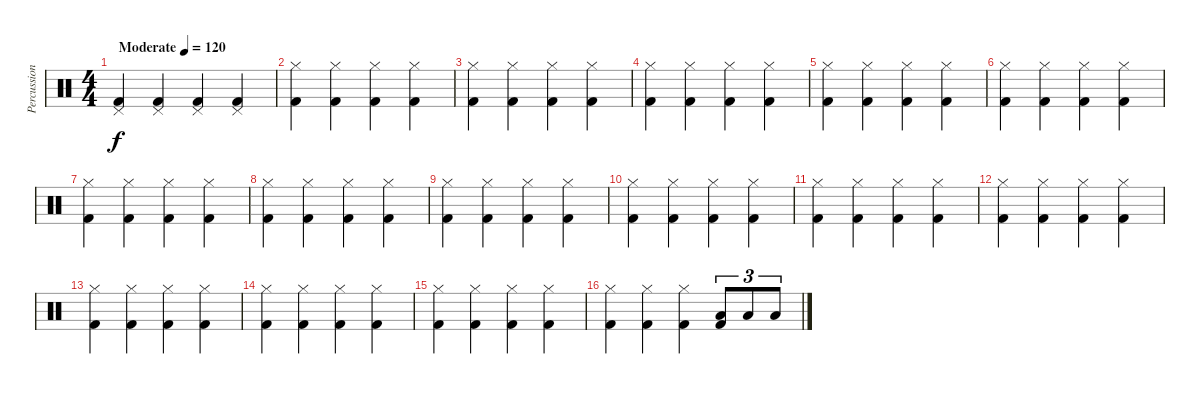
\track ("Percussions" "Percussion") {instrument percussion}
\staff {score}
\articulation defaults
\ts (4 4)
\tempo (120 "Moderate")
\clef neutral
\ks c
("Pedal Hi-Hat (hit)" "Kick (hit) 2").4{dy f} ("Pedal Hi-Hat (hit)" "Kick (hit) 2").4 ("Pedal Hi-Hat (hit)" "Kick (hit) 2").4 ("Pedal Hi-Hat (hit)" "Kick (hit) 2").4 |
("Hi-Hat (closed)" "Kick (hit) 2").4 ("Hi-Hat (closed)" "Kick (hit) 2").4 ("Hi-Hat (closed)" "Kick (hit) 2").4 ("Hi-Hat (closed)" "Kick (hit) 2").4 |
("Hi-Hat (closed)" "Kick (hit) 2").4 ("Hi-Hat (closed)" "Kick (hit) 2").4 ("Hi-Hat (closed)" "Kick (hit) 2").4 ("Hi-Hat (closed)" "Kick (hit) 2").4 |
("Hi-Hat (closed)" "Kick (hit) 2").4 ("Hi-Hat (closed)" "Kick (hit) 2").4 ("Hi-Hat (closed)" "Kick (hit) 2").4 ("Hi-Hat (closed)" "Kick (hit) 2").4 |
("Hi-Hat (closed)" "Kick (hit) 2").4 ("Hi-Hat (closed)" "Kick (hit) 2").4 ("Hi-Hat (closed)" "Kick (hit) 2").4 ("Hi-Hat (closed)" "Kick (hit) 2").4 |
("Hi-Hat (closed)" "Kick (hit) 2").4 ("Hi-Hat (closed)" "Kick (hit) 2").4 ("Hi-Hat (closed)" "Kick (hit) 2").4 ("Hi-Hat (closed)" "Kick (hit) 2").4 |
("Hi-Hat (closed)" "Kick (hit) 2").4 ("Hi-Hat (closed)" "Kick (hit) 2").4 ("Hi-Hat (closed)" "Kick (hit) 2").4 ("Hi-Hat (closed)" "Kick (hit) 2").4 |
("Hi-Hat (closed)" "Kick (hit) 2").4 ("Hi-Hat (closed)" "Kick (hit) 2").4 ("Hi-Hat (closed)" "Kick (hit) 2").4 ("Hi-Hat (closed)" "Kick (hit) 2").4 |
("Hi-Hat (closed)" "Kick (hit) 2").4 ("Hi-Hat (closed)" "Kick (hit) 2").4 ("Hi-Hat (closed)" "Kick (hit) 2").4 ("Hi-Hat (closed)" "Kick (hit) 2").4 |
("Hi-Hat (closed)" "Kick (hit) 2").4 ("Hi-Hat (closed)" "Kick (hit) 2").4 ("Hi-Hat (closed)" "Kick (hit) 2").4 ("Hi-Hat (closed)" "Kick (hit) 2").4 |
("Hi-Hat (closed)" "Kick (hit) 2").4 ("Hi-Hat (closed)" "Kick (hit) 2").4 ("Hi-Hat (closed)" "Kick (hit) 2").4 ("Hi-Hat (closed)" "Kick (hit) 2").4 |
("Hi-Hat (closed)" "Kick (hit) 2").4 ("Hi-Hat (closed)" "Kick (hit) 2").4 ("Hi-Hat (closed)" "Kick (hit) 2").4 ("Hi-Hat (closed)" "Kick (hit) 2").4 |
("Hi-Hat (closed)" "Kick (hit) 2").4 ("Hi-Hat (closed)" "Kick (hit) 2").4 ("Hi-Hat (closed)" "Kick (hit) 2").4 ("Hi-Hat (closed)" "Kick (hit) 2").4 |
("Hi-Hat (closed)" "Kick (hit) 2").4 ("Hi-Hat (closed)" "Kick (hit) 2").4 ("Hi-Hat (closed)" "Kick (hit) 2").4 ("Hi-Hat (closed)" "Kick (hit) 2").4 |
("Hi-Hat (closed)" "Kick (hit) 2").4 ("Hi-Hat (closed)" "Kick (hit) 2").4 ("Hi-Hat (closed)" "Kick (hit) 2").4 ("Hi-Hat (closed)" "Kick (hit) 2").4 |
("Hi-Hat (closed)" "Kick (hit) 2").4 ("Hi-Hat (closed)" "Kick (hit) 2").4 ("Hi-Hat (closed)" "Kick (hit) 2").4 ("Low Tom (hit)" "Kick (hit) 2").8{tu (3 2)} "Low Tom (hit)".8{tu (3 2)} "Low Tom (hit)".8{tu (3 2)}
